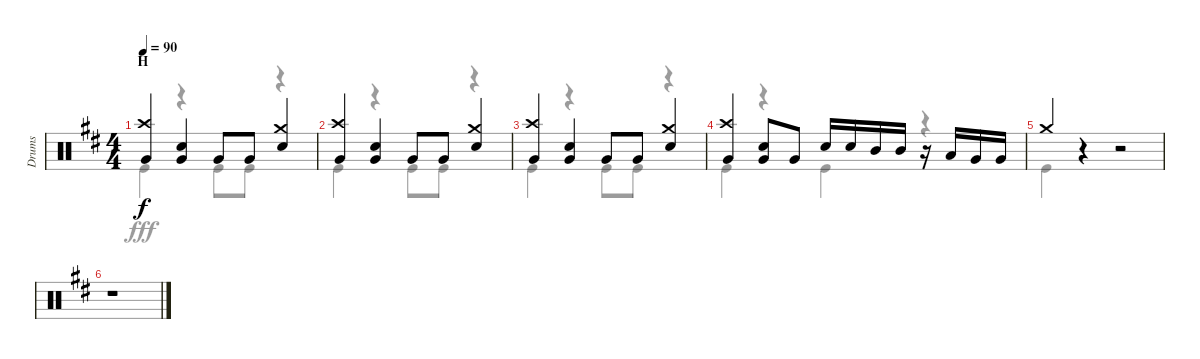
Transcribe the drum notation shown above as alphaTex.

\track ("Drums" "Drums") {instrument percussion}
\staff {score}
\articulation defaults
\voice
\ts (4 4)
\section ("" "H")
\tempo 90
\clef neutral
\ks d
("Crash high (hit)" "Very Low Tom (hit)").4{dy f} ("Snare (hit) 2" "Very Low Tom (hit)").4 "Very Low Tom (hit)".8 "Very Low Tom (hit)".8 ("Crash medium (hit)" "Snare (hit) 2").4 |
("Crash high (hit)" "Very Low Tom (hit)").4 ("Snare (hit) 2" "Very Low Tom (hit)").4 "Very Low Tom (hit)".8 "Very Low Tom (hit)".8 ("Crash medium (hit)" "Snare (hit) 2").4 |
("Crash high (hit)" "Very Low Tom (hit)").4 ("Snare (hit) 2" "Very Low Tom (hit)").4 "Very Low Tom (hit)".8 "Very Low Tom (hit)".8 ("Crash medium (hit)" "Snare (hit) 2").4 |
("Crash high (hit)" "Very Low Tom (hit)").4 ("Snare (hit) 2" "Very Low Tom (hit)").8 "Very Low Tom (hit)".8 "Snare (hit) 2".16 "Snare (hit) 2".16 "Mid Tom (hit)".16 "Mid Tom (hit)".16 r.16 "Low Tom (hit)".16 "Very Low Tom (hit)".16 "Very Low Tom (hit)".16 |
"Crash medium (hit)".4 r.4 r.2 |
r.1
\voice
\clef neutral
\ottava regular
\simile none
\ks d "Kick (hit)".4{dy fff}
r.4 "Kick (hit)".8 "Kick (hit)".8 r.4 |
"Kick (hit)".4 r.4 "Kick (hit)".8 "Kick (hit)".8 r.4 |
"Kick (hit)".4 r.4 "Kick (hit)".8 "Kick (hit)".8 r.4 |
"Kick (hit)".4 r.4 "Kick (hit)".4 r.4 |
"Kick (hit)".4 r.4 r.2 |
r.1
